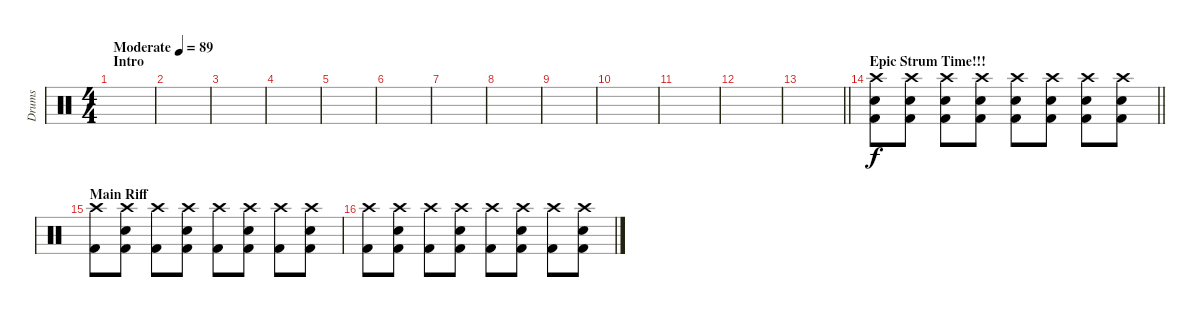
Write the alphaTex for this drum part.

\track ("Drums" "Drums") {instrument percussion}
\staff {score}
\articulation defaults
\ts (4 4)
\section ("" "Intro")
\tempo (89 "Moderate")
\clef neutral
\ks c
|
|
|
|
|
|
|
|
|
|
|
|
\barLineRight lightlight
|
\section ("" "Epic Strum Time!!!")
\barLineRight lightlight
("Crash high (hit)" "Snare (hit) 2" "Kick (hit) 2").8 ("Crash high (hit)" "Snare (hit) 2" "Kick (hit) 2").8 ("Crash high (hit)" "Snare (hit) 2" "Kick (hit) 2").8 ("Crash high (hit)" "Kick (hit) 2" "Snare (hit) 2").8 ("Crash high (hit)" "Kick (hit) 2" "Snare (hit) 2").8 ("Crash high (hit)" "Snare (hit) 2" "Kick (hit) 2").8 ("Crash high (hit)" "Snare (hit) 2" "Kick (hit) 2").8 ("Crash high (hit)" "Snare (hit) 2" "Kick (hit) 2").8 |
\section ("" "Main Riff")
("Crash high (hit)" "Kick (hit) 2").8 ("Crash high (hit)" "Snare (hit) 2" "Kick (hit) 2").8 ("Crash high (hit)" "Kick (hit) 2").8 ("Crash high (hit)" "Snare (hit) 2" "Kick (hit) 2").8 ("Crash high (hit)" "Kick (hit) 2").8 ("Crash high (hit)" "Snare (hit) 2" "Kick (hit) 2").8 ("Crash high (hit)" "Kick (hit) 2").8 ("Crash high (hit)" "Snare (hit) 2" "Kick (hit) 2").8 |
("Crash high (hit)" "Kick (hit) 2").8 ("Crash high (hit)" "Snare (hit) 2" "Kick (hit) 2").8 ("Crash high (hit)" "Kick (hit) 2").8 ("Crash high (hit)" "Snare (hit) 2" "Kick (hit) 2").8 ("Crash high (hit)" "Kick (hit) 2").8 ("Crash high (hit)" "Snare (hit) 2" "Kick (hit) 2").8 ("Crash high (hit)" "Kick (hit) 2").8 ("Crash high (hit)" "Snare (hit) 2" "Kick (hit) 2").8
